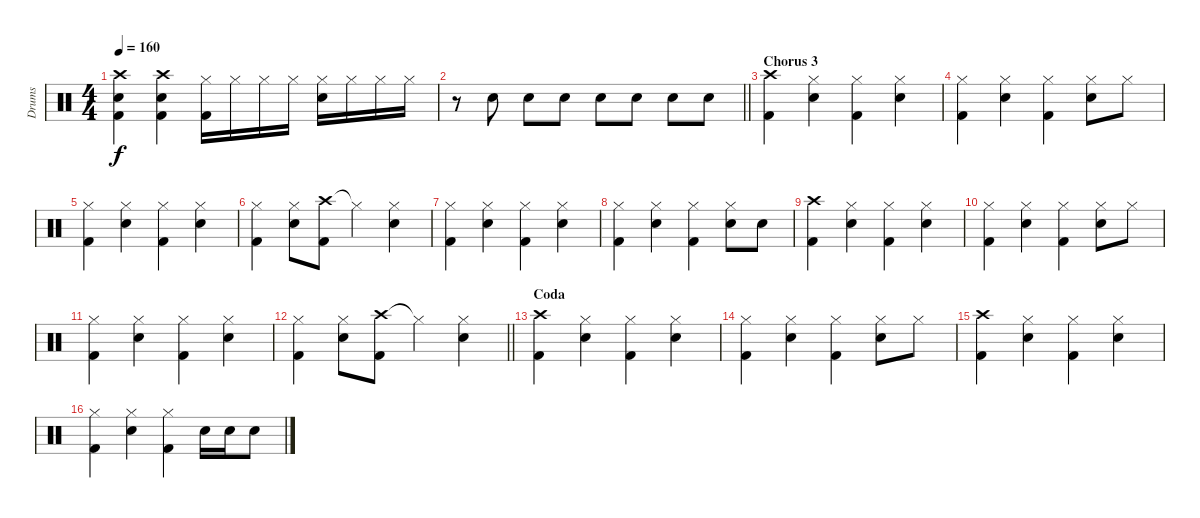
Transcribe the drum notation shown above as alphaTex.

\track ("Drums" "Drums") {instrument percussion}
\staff {score}
\articulation defaults
\ts (4 4)
\tempo 160
\clef neutral
\ks c
("Crash high (hit)" "Snare (hit) 2" "Kick (hit) 2").4{dy f} ("Crash high (hit)" "Snare (hit) 2" "Kick (hit) 2").4 ("Hi-Hat (closed)" "Kick (hit) 2").16 "Hi-Hat (closed)".16 "Hi-Hat (closed)".16 "Hi-Hat (closed)".16 ("Hi-Hat (closed)" "Snare (hit) 2").16 "Hi-Hat (closed)".16 "Hi-Hat (closed)".16 "Hi-Hat (closed)".16 |
\barLineRight lightlight
r.8 "Snare (hit) 2".8 "Snare (hit) 2".8 "Snare (hit) 2".8 "Snare (hit) 2".8 "Snare (hit) 2".8 "Snare (hit) 2".8 "Snare (hit) 2".8 |
\section ("" "Chorus 3")
("Crash high (hit)" "Kick (hit) 2").4 ("Hi-Hat (closed)" "Snare (hit) 2").4 ("Hi-Hat (closed)" "Kick (hit) 2").4 ("Hi-Hat (closed)" "Snare (hit) 2").4 |
("Hi-Hat (closed)" "Kick (hit) 2").4 ("Hi-Hat (closed)" "Snare (hit) 2").4 ("Hi-Hat (closed)" "Kick (hit) 2").4 ("Hi-Hat (closed)" "Snare (hit) 2").8 "Hi-Hat (closed)".8 |
("Hi-Hat (closed)" "Kick (hit) 2").4 ("Hi-Hat (closed)" "Snare (hit) 2").4 ("Hi-Hat (closed)" "Kick (hit) 2").4 ("Hi-Hat (closed)" "Snare (hit) 2").4 |
("Hi-Hat (closed)" "Kick (hit) 2").4 ("Hi-Hat (closed)" "Snare (hit) 2").8 ("Crash high (hit)" "Kick (hit) 2").8 "Hi-Hat (closed)"{t}.4 ("Hi-Hat (closed)" "Snare (hit) 2").4 |
("Hi-Hat (closed)" "Kick (hit) 2").4 ("Hi-Hat (closed)" "Snare (hit) 2").4 ("Hi-Hat (closed)" "Kick (hit) 2").4 ("Hi-Hat (closed)" "Snare (hit) 2").4 |
("Hi-Hat (closed)" "Kick (hit) 2").4 ("Hi-Hat (closed)" "Snare (hit) 2").4 ("Hi-Hat (closed)" "Kick (hit) 2").4 ("Hi-Hat (closed)" "Snare (hit) 2").8 "Snare (hit) 2".8 |
("Crash high (hit)" "Kick (hit) 2").4 ("Hi-Hat (closed)" "Snare (hit) 2").4 ("Hi-Hat (closed)" "Kick (hit) 2").4 ("Hi-Hat (closed)" "Snare (hit) 2").4 |
("Hi-Hat (closed)" "Kick (hit) 2").4 ("Hi-Hat (closed)" "Snare (hit) 2").4 ("Hi-Hat (closed)" "Kick (hit) 2").4 ("Hi-Hat (closed)" "Snare (hit) 2").8 "Hi-Hat (closed)".8 |
("Hi-Hat (closed)" "Kick (hit) 2").4 ("Hi-Hat (closed)" "Snare (hit) 2").4 ("Hi-Hat (closed)" "Kick (hit) 2").4 ("Hi-Hat (closed)" "Snare (hit) 2").4 |
\barLineRight lightlight
("Hi-Hat (closed)" "Kick (hit) 2").4 ("Hi-Hat (closed)" "Snare (hit) 2").8 ("Crash high (hit)" "Kick (hit) 2").8 "Hi-Hat (closed)"{t}.4 ("Hi-Hat (closed)" "Snare (hit) 2").4 |
\section ("" "Coda")
("Crash high (hit)" "Kick (hit) 2").4 ("Hi-Hat (closed)" "Snare (hit) 2").4 ("Hi-Hat (closed)" "Kick (hit) 2").4 ("Hi-Hat (closed)" "Snare (hit) 2").4 |
("Hi-Hat (closed)" "Kick (hit) 2").4 ("Hi-Hat (closed)" "Snare (hit) 2").4 ("Hi-Hat (closed)" "Kick (hit) 2").4 ("Hi-Hat (closed)" "Snare (hit) 2").8 "Hi-Hat (closed)".8 |
("Crash high (hit)" "Kick (hit) 2").4 ("Hi-Hat (closed)" "Snare (hit) 2").4 ("Hi-Hat (closed)" "Kick (hit) 2").4 ("Hi-Hat (closed)" "Snare (hit) 2").4 |
("Hi-Hat (closed)" "Kick (hit) 2").4 ("Hi-Hat (closed)" "Snare (hit) 2").4 ("Hi-Hat (closed)" "Kick (hit) 2").4 "Snare (hit) 2".16 "Snare (hit) 2".16 "Snare (hit) 2".8
